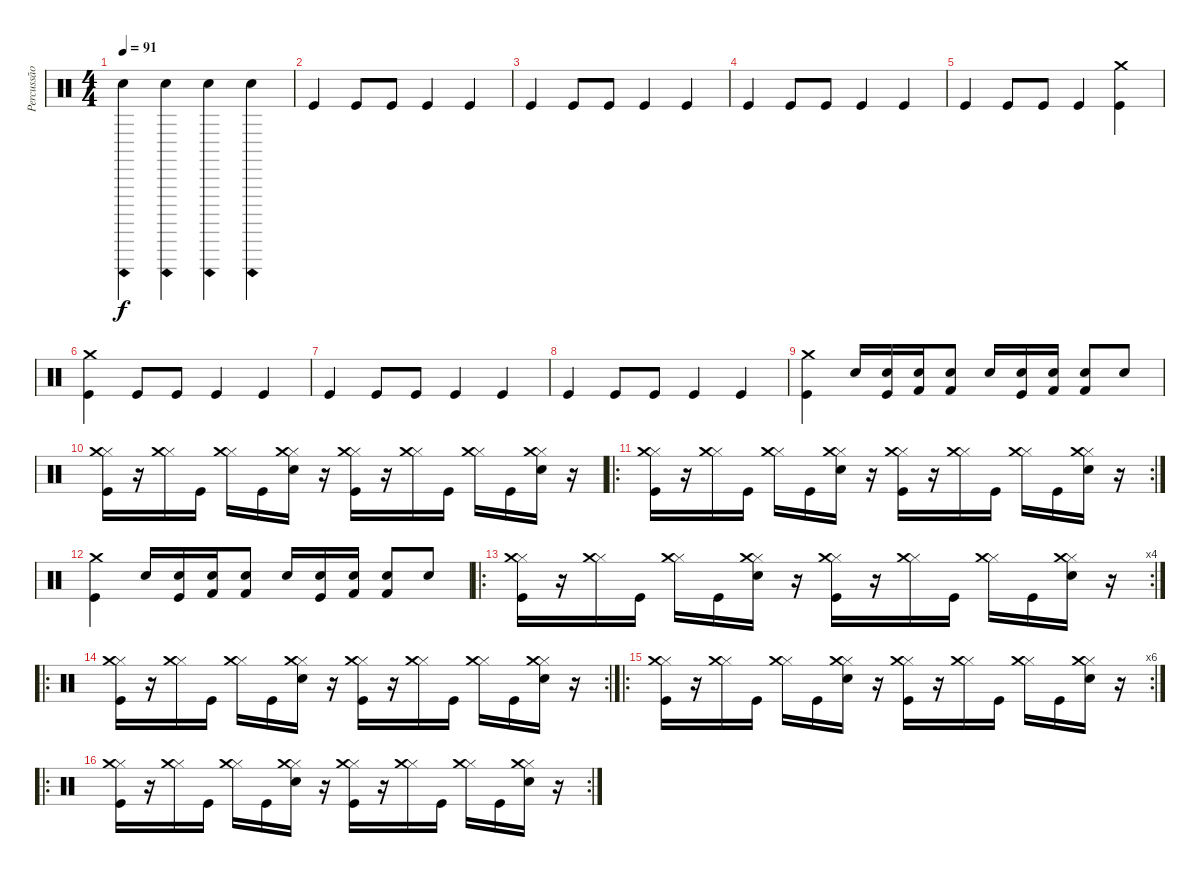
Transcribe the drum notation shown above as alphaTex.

\track ("Percussão" "Percussão") {instrument percussion}
\staff {score}
\articulation defaults
\ts (4 4)
\tempo 91
\clef neutral
\ks c "Electric Snare (hit)"{ah 12}.4{dy f} "Electric Snare (hit)"{ah 12}.4 "Electric Snare (hit)"{ah 12}.4 "Electric Snare (hit)"{ah 12}.4
|
"Kick (hit)".4 "Kick (hit)".8 "Kick (hit)".8 "Kick (hit)".4 "Kick (hit)".4 |
"Kick (hit)".4 "Kick (hit)".8 "Kick (hit)".8 "Kick (hit)".4 "Kick (hit)".4 |
"Kick (hit)".4 "Kick (hit)".8 "Kick (hit)".8 "Kick (hit)".4 "Kick (hit)".4 |
"Kick (hit)".4 "Kick (hit)".8 "Kick (hit)".8 "Kick (hit)".4 ("Crash medium (hit)" "Kick (hit)").4 |
("Crash medium (hit)" "Kick (hit)").4 "Kick (hit)".8 "Kick (hit)".8 "Kick (hit)".4 "Kick (hit)".4 |
"Kick (hit)".4 "Kick (hit)".8 "Kick (hit)".8 "Kick (hit)".4 "Kick (hit)".4 |
"Kick (hit)".4 "Kick (hit)".8 "Kick (hit)".8 "Kick (hit)".4 "Kick (hit)".4 |
("Crash medium (hit)" "Kick (hit)").4 "Electric Snare (hit)".16 ("Electric Snare (hit)" "Kick (hit)").16 ("Electric Snare (hit)" "Kick (hit) 2").16 ("Electric Snare (hit)" "Kick (hit) 2").8 "Electric Snare (hit)".16 ("Electric Snare (hit)" "Kick (hit)").16 ("Electric Snare (hit)" "Kick (hit) 2").16 ("Electric Snare (hit)" "Kick (hit) 2").8 "Electric Snare (hit)".8 |
("Kick (hit)" "Hi-Hat (closed)" "Crash medium (hit)").16 r.16 ("Hi-Hat (closed)" "Crash medium (hit)").16 "Kick (hit)".16 ("Hi-Hat (closed)" "Crash medium (hit)").16 "Kick (hit)".16 ("Electric Snare (hit)" "Hi-Hat (closed)" "Crash medium (hit)").16 r.16 ("Kick (hit)" "Hi-Hat (closed)" "Crash medium (hit)").16 r.16 ("Hi-Hat (closed)" "Crash medium (hit)").16 "Kick (hit)".16 ("Hi-Hat (closed)" "Crash medium (hit)").16 "Kick (hit)".16 ("Electric Snare (hit)" "Hi-Hat (closed)" "Crash medium (hit)").16 r.16 |
\ro
\rc 2
("Kick (hit)" "Hi-Hat (closed)" "Crash medium (hit)").16 r.16 ("Hi-Hat (closed)" "Crash medium (hit)").16 "Kick (hit)".16 ("Hi-Hat (closed)" "Crash medium (hit)").16 "Kick (hit)".16 ("Electric Snare (hit)" "Hi-Hat (closed)" "Crash medium (hit)").16 r.16 ("Kick (hit)" "Hi-Hat (closed)" "Crash medium (hit)").16 r.16 ("Hi-Hat (closed)" "Crash medium (hit)").16 "Kick (hit)".16 ("Hi-Hat (closed)" "Crash medium (hit)").16 "Kick (hit)".16 ("Electric Snare (hit)" "Hi-Hat (closed)" "Crash medium (hit)").16 r.16 |
("Crash medium (hit)" "Kick (hit)").4 "Electric Snare (hit)".16 ("Electric Snare (hit)" "Kick (hit)").16 ("Electric Snare (hit)" "Kick (hit) 2").16 ("Electric Snare (hit)" "Kick (hit) 2").8 "Electric Snare (hit)".16 ("Electric Snare (hit)" "Kick (hit)").16 ("Electric Snare (hit)" "Kick (hit) 2").16 ("Electric Snare (hit)" "Kick (hit) 2").8 "Electric Snare (hit)".8 |
\ro
\rc 4
("Kick (hit)" "Hi-Hat (closed)" "Crash medium (hit)").16 r.16 ("Hi-Hat (closed)" "Crash medium (hit)").16 "Kick (hit)".16 ("Hi-Hat (closed)" "Crash medium (hit)").16 "Kick (hit)".16 ("Electric Snare (hit)" "Hi-Hat (closed)" "Crash medium (hit)").16 r.16 ("Kick (hit)" "Hi-Hat (closed)" "Crash medium (hit)").16 r.16 ("Hi-Hat (closed)" "Crash medium (hit)").16 "Kick (hit)".16 ("Hi-Hat (closed)" "Crash medium (hit)").16 "Kick (hit)".16 ("Electric Snare (hit)" "Hi-Hat (closed)" "Crash medium (hit)").16 r.16 |
\ro
\rc 2
("Kick (hit)" "Hi-Hat (closed)" "Crash medium (hit)").16 r.16 ("Hi-Hat (closed)" "Crash medium (hit)").16 "Kick (hit)".16 ("Hi-Hat (closed)" "Crash medium (hit)").16 "Kick (hit)".16 ("Electric Snare (hit)" "Hi-Hat (closed)" "Crash medium (hit)").16 r.16 ("Kick (hit)" "Hi-Hat (closed)" "Crash medium (hit)").16 r.16 ("Hi-Hat (closed)" "Crash medium (hit)").16 "Kick (hit)".16 ("Hi-Hat (closed)" "Crash medium (hit)").16 "Kick (hit)".16 ("Electric Snare (hit)" "Hi-Hat (closed)" "Crash medium (hit)").16 r.16 |
\ro
\rc 6
("Kick (hit)" "Hi-Hat (closed)" "Crash medium (hit)").16 r.16 ("Hi-Hat (closed)" "Crash medium (hit)").16 "Kick (hit)".16 ("Hi-Hat (closed)" "Crash medium (hit)").16 "Kick (hit)".16 ("Electric Snare (hit)" "Hi-Hat (closed)" "Crash medium (hit)").16 r.16 ("Kick (hit)" "Hi-Hat (closed)" "Crash medium (hit)").16 r.16 ("Hi-Hat (closed)" "Crash medium (hit)").16 "Kick (hit)".16 ("Hi-Hat (closed)" "Crash medium (hit)").16 "Kick (hit)".16 ("Electric Snare (hit)" "Hi-Hat (closed)" "Crash medium (hit)").16 r.16 |
\ro
\rc 2
("Kick (hit)" "Hi-Hat (closed)" "Crash medium (hit)").16 r.16 ("Hi-Hat (closed)" "Crash medium (hit)").16 "Kick (hit)".16 ("Hi-Hat (closed)" "Crash medium (hit)").16 "Kick (hit)".16 ("Electric Snare (hit)" "Hi-Hat (closed)" "Crash medium (hit)").16 r.16 ("Kick (hit)" "Hi-Hat (closed)" "Crash medium (hit)").16 r.16 ("Hi-Hat (closed)" "Crash medium (hit)").16 "Kick (hit)".16 ("Hi-Hat (closed)" "Crash medium (hit)").16 "Kick (hit)".16 ("Electric Snare (hit)" "Hi-Hat (closed)" "Crash medium (hit)").16 r.16
